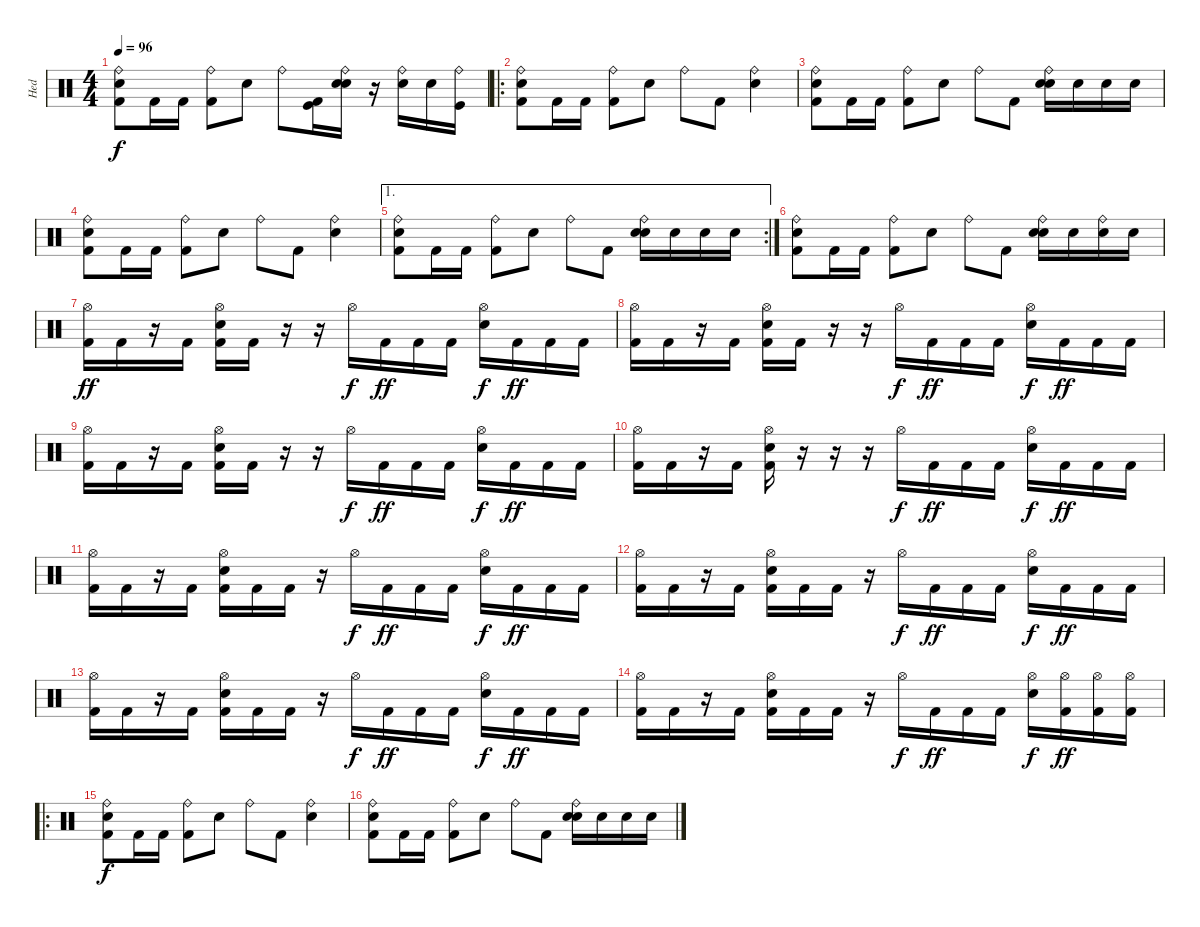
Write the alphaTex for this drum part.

\track ("Hed" "Hed") {instrument percussion}
\staff {score}
\articulation defaults
\ts (4 4)
\tempo 96
\clef neutral
\ks c
("Ride (bell)" "Electric Snare (hit)" "Kick (hit) 2").8{dy f} "Kick (hit) 2".16 "Kick (hit) 2".16 ("Ride (bell)" "Kick (hit) 2").8 "Electric Snare (hit)".8 "Ride (bell)".8 ("Kick (hit)" "Kick (hit) 2").16 ("Ride (bell)" "Snare (hit) 2" "Electric Snare (hit)").16 r.16 ("Ride (bell)" "Snare (hit) 2").16 "Snare (hit) 2".16 ("Ride (bell)" "Kick (hit)").16 |
\ro
("Ride (bell)" "Electric Snare (hit)" "Kick (hit) 2").8 "Kick (hit) 2".16 "Kick (hit) 2".16 ("Ride (bell)" "Kick (hit) 2").8 "Electric Snare (hit)".8 "Ride (bell)".8 "Kick (hit) 2".8 ("Ride (bell)" "Electric Snare (hit)").4 |
("Ride (bell)" "Electric Snare (hit)" "Kick (hit) 2").8 "Kick (hit) 2".16 "Kick (hit) 2".16 ("Ride (bell)" "Kick (hit) 2").8 "Electric Snare (hit)".8 "Ride (bell)".8 "Kick (hit) 2".8 ("Ride (bell)" "Snare (hit) 2" "Electric Snare (hit)").16 "Snare (hit) 2".16 "Snare (hit) 2".16 "Snare (hit) 2".16 |
("Ride (bell)" "Electric Snare (hit)" "Kick (hit) 2").8 "Kick (hit) 2".16 "Kick (hit) 2".16 ("Ride (bell)" "Kick (hit) 2").8 "Electric Snare (hit)".8 "Ride (bell)".8 "Kick (hit) 2".8 ("Ride (bell)" "Electric Snare (hit)").4 |
\ae 1
\rc 2
("Ride (bell)" "Electric Snare (hit)" "Kick (hit) 2").8 "Kick (hit) 2".16 "Kick (hit) 2".16 ("Ride (bell)" "Kick (hit) 2").8 "Electric Snare (hit)".8 "Ride (bell)".8 "Kick (hit) 2".8 ("Ride (bell)" "Snare (hit) 2" "Electric Snare (hit)").16 "Snare (hit) 2".16 "Snare (hit) 2".16 "Snare (hit) 2".16 |
("Ride (bell)" "Electric Snare (hit)" "Kick (hit) 2").8 "Kick (hit) 2".16 "Kick (hit) 2".16 ("Ride (bell)" "Kick (hit) 2").8 "Electric Snare (hit)".8 "Ride (bell)".8 "Kick (hit) 2".8 ("Ride (bell)" "Snare (hit) 2" "Electric Snare (hit)").16 "Snare (hit) 2".16 ("Ride (bell)" "Snare (hit) 2").16 "Snare (hit) 2".16 |
("Hi-Hat (open)" "Kick (hit) 2").16{dy ff} "Kick (hit) 2".16 r.16 "Kick (hit) 2".16 ("Hi-Hat (open)" "Snare (hit) 2" "Kick (hit) 2").16 "Kick (hit) 2".16 r.16 r.16 "Hi-Hat (open)".16{dy f} "Kick (hit) 2".16{dy ff} "Kick (hit) 2".16 "Kick (hit) 2".16 ("Hi-Hat (open)" "Snare (hit) 2").16{dy f} "Kick (hit) 2".16{dy ff} "Kick (hit) 2".16 "Kick (hit) 2".16 |
("Hi-Hat (open)" "Kick (hit) 2").16 "Kick (hit) 2".16 r.16 "Kick (hit) 2".16 ("Hi-Hat (open)" "Snare (hit) 2" "Kick (hit) 2").16 "Kick (hit) 2".16 r.16 r.16 "Hi-Hat (open)".16{dy f} "Kick (hit) 2".16{dy ff} "Kick (hit) 2".16 "Kick (hit) 2".16 ("Hi-Hat (open)" "Snare (hit) 2").16{dy f} "Kick (hit) 2".16{dy ff} "Kick (hit) 2".16 "Kick (hit) 2".16 |
("Hi-Hat (open)" "Kick (hit) 2").16 "Kick (hit) 2".16 r.16 "Kick (hit) 2".16 ("Hi-Hat (open)" "Snare (hit) 2" "Kick (hit) 2").16 "Kick (hit) 2".16 r.16 r.16 "Hi-Hat (open)".16{dy f} "Kick (hit) 2".16{dy ff} "Kick (hit) 2".16 "Kick (hit) 2".16 ("Hi-Hat (open)" "Snare (hit) 2").16{dy f} "Kick (hit) 2".16{dy ff} "Kick (hit) 2".16 "Kick (hit) 2".16 |
("Hi-Hat (open)" "Kick (hit) 2").16 "Kick (hit) 2".16 r.16 "Kick (hit) 2".16 ("Hi-Hat (open)" "Snare (hit) 2" "Kick (hit) 2").16 r.16 r.16 r.16 "Hi-Hat (open)".16{dy f} "Kick (hit) 2".16{dy ff} "Kick (hit) 2".16 "Kick (hit) 2".16 ("Hi-Hat (open)" "Snare (hit) 2").16{dy f} "Kick (hit) 2".16{dy ff} "Kick (hit) 2".16 "Kick (hit) 2".16 |
("Hi-Hat (open)" "Kick (hit) 2").16 "Kick (hit) 2".16 r.16 "Kick (hit) 2".16 ("Hi-Hat (open)" "Snare (hit) 2" "Kick (hit) 2").16 "Kick (hit) 2".16 "Kick (hit) 2".16 r.16 "Hi-Hat (open)".16{dy f} "Kick (hit) 2".16{dy ff} "Kick (hit) 2".16 "Kick (hit) 2".16 ("Hi-Hat (open)" "Snare (hit) 2").16{dy f} "Kick (hit) 2".16{dy ff} "Kick (hit) 2".16 "Kick (hit) 2".16 |
("Hi-Hat (open)" "Kick (hit) 2").16 "Kick (hit) 2".16 r.16 "Kick (hit) 2".16 ("Hi-Hat (open)" "Snare (hit) 2" "Kick (hit) 2").16 "Kick (hit) 2".16 "Kick (hit) 2".16 r.16 "Hi-Hat (open)".16{dy f} "Kick (hit) 2".16{dy ff} "Kick (hit) 2".16 "Kick (hit) 2".16 ("Hi-Hat (open)" "Snare (hit) 2").16{dy f} "Kick (hit) 2".16{dy ff} "Kick (hit) 2".16 "Kick (hit) 2".16 |
("Hi-Hat (open)" "Kick (hit) 2").16 "Kick (hit) 2".16 r.16 "Kick (hit) 2".16 ("Hi-Hat (open)" "Snare (hit) 2" "Kick (hit) 2").16 "Kick (hit) 2".16 "Kick (hit) 2".16 r.16 "Hi-Hat (open)".16{dy f} "Kick (hit) 2".16{dy ff} "Kick (hit) 2".16 "Kick (hit) 2".16 ("Hi-Hat (open)" "Snare (hit) 2").16{dy f} "Kick (hit) 2".16{dy ff} "Kick (hit) 2".16 "Kick (hit) 2".16 |
("Hi-Hat (open)" "Kick (hit) 2").16 "Kick (hit) 2".16 r.16 "Kick (hit) 2".16 ("Hi-Hat (open)" "Snare (hit) 2" "Kick (hit) 2").16 "Kick (hit) 2".16 "Kick (hit) 2".16 r.16 "Hi-Hat (open)".16{dy f} "Kick (hit) 2".16{dy ff} "Kick (hit) 2".16 "Kick (hit) 2".16 ("Hi-Hat (open)" "Snare (hit) 2").16{dy f} ("Hi-Hat (open)" "Kick (hit) 2").16{dy ff} ("Hi-Hat (open)" "Kick (hit) 2").16 ("Hi-Hat (open)" "Kick (hit) 2").16 |
\ro
("Ride (bell)" "Electric Snare (hit)" "Kick (hit) 2").8{dy f} "Kick (hit) 2".16 "Kick (hit) 2".16 ("Ride (bell)" "Kick (hit) 2").8 "Electric Snare (hit)".8 "Ride (bell)".8 "Kick (hit) 2".8 ("Ride (bell)" "Electric Snare (hit)").4 |
("Ride (bell)" "Electric Snare (hit)" "Kick (hit) 2").8 "Kick (hit) 2".16 "Kick (hit) 2".16 ("Ride (bell)" "Kick (hit) 2").8 "Electric Snare (hit)".8 "Ride (bell)".8 "Kick (hit) 2".8 ("Ride (bell)" "Snare (hit) 2" "Electric Snare (hit)").16 "Snare (hit) 2".16 "Snare (hit) 2".16 "Snare (hit) 2".16
